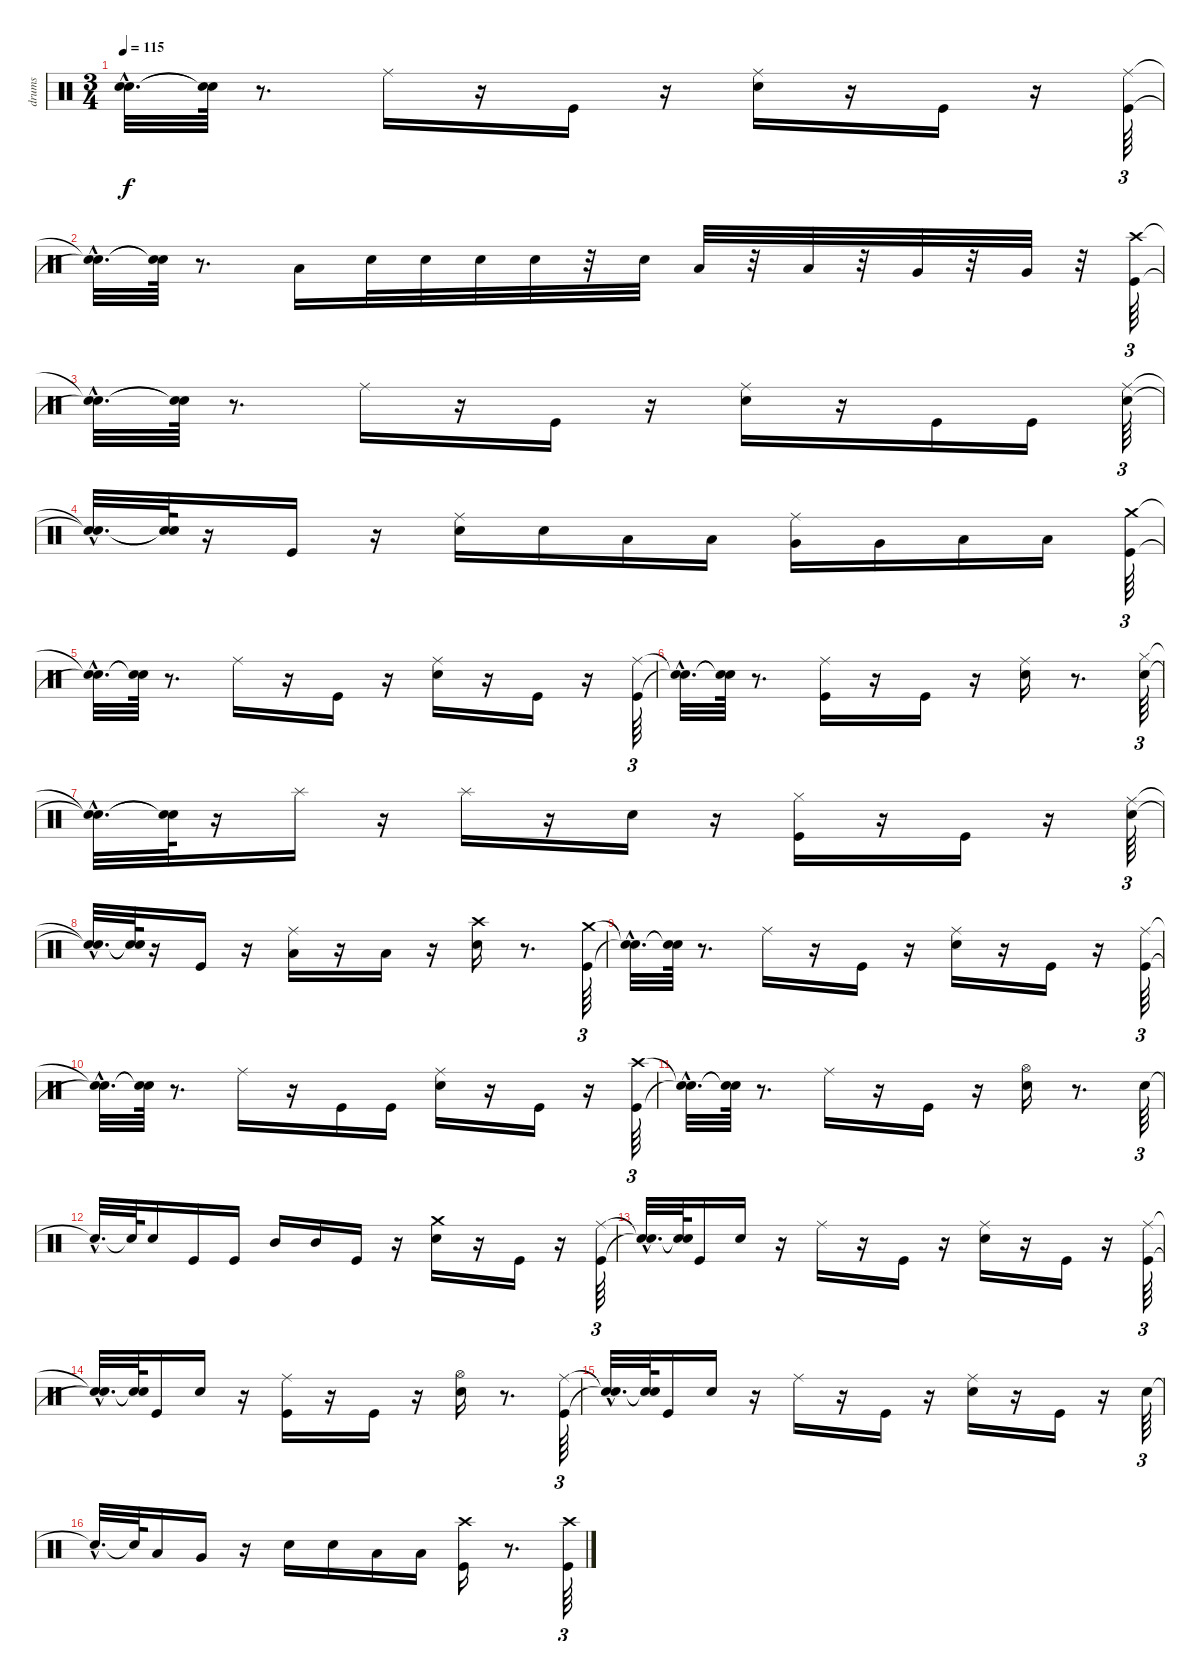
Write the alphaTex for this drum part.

\track ("drums" "drums") {instrument percussion}
\staff {score}
\articulation defaults
\ts (3 4)
\tempo 115
\clef neutral
\ks c
("Snare (hit)"{hac t} "Snare (hit)"{hac t}).32{d dy f} ("Snare (hit)"{t} "Snare (hit)"{t}).64 r.8{d} "Ride (middle)".16 r.16 "Kick (hit)".16 r.16 ("Electric Snare (hit)" "Ride (middle)").16 r.16 "Kick (hit)".16 r.16 ("Ride (middle)" "Kick (hit)").64{tu (3 2)} |
("Snare (hit)"{hac t} "Snare (hit)"{hac t}).32{d} ("Snare (hit)"{t} "Snare (hit)"{t}).64 r.8{d} "Low Tom (hit)".16 "Electric Snare (hit)".32 "Electric Snare (hit)".32 "Electric Snare (hit)".32 "Electric Snare (hit)".32 r.32 "Electric Snare (hit)".32 "Low Tom (hit)".32 r.32 "Low Tom (hit)".32 r.32 "Very Low Tom (hit)".32 r.32 "Very Low Tom (hit)".32 r.32 ("Crash high (hit)" "Kick (hit)").64{tu (3 2)} |
("Snare (hit)"{hac t} "Snare (hit)"{hac t}).32{d} ("Snare (hit)"{t} "Snare (hit)"{t}).64 r.8{d} "Ride (middle)".16 r.16 "Kick (hit)".16 r.16 ("Electric Snare (hit)" "Ride (middle)").16 r.16 "Kick (hit)".16 "Kick (hit)".16 ("Ride (middle)" "Electric Snare (hit)").64{tu (3 2)} |
("Snare (hit)"{hac t} "Snare (hit)"{hac t}).32{d} ("Snare (hit)"{t} "Snare (hit)"{t}).64 r.16 "Kick (hit)".16 r.16 ("Snare (hit) 2" "Ride (middle)").16 "Snare (hit) 2".16 "Low Tom (hit)".16 "Low Tom (hit)".16 ("Very Low Tom (hit)" "Ride (middle)").16 "Very Low Tom (hit)".16 "Low Floor Tom (hit)".16 "Low Floor Tom (hit)".16 ("Crash medium (hit)" "Kick (hit)").64{tu (3 2)} |
("Snare (hit)"{hac t} "Snare (hit)"{hac t}).32{d} ("Snare (hit)"{t} "Snare (hit)"{t}).64 r.8{d} "Ride (middle)".16 r.16 "Kick (hit)".16 r.16 ("Electric Snare (hit)" "Ride (middle)").16 r.16 "Kick (hit)".16 r.16 ("Ride (middle)" "Kick (hit)").64{tu (3 2)} |
("Snare (hit)"{hac t} "Snare (hit)"{hac t}).32{d} ("Snare (hit)"{t} "Snare (hit)"{t}).64 r.8{d} ("Kick (hit)" "Ride (middle)").16 r.16 "Kick (hit)".16 r.16 ("Electric Snare (hit)" "Ride (middle)").16 r.8{d} ("Hi-Hat (closed)" "Electric Snare (hit)").64{tu (3 2)} |
("Snare (hit)"{hac t} "Snare (hit)"{hac t}).32{d} ("Snare (hit)"{t} "Snare (hit)"{t}).64 r.16 "Splash (hit)".16 r.16 "Splash (hit)".16 r.16 "Electric Snare (hit)".16 r.16 ("Hi-Hat (closed)" "Kick (hit)").16 r.16 "Kick (hit)".16 r.16 ("Ride (middle)" "Electric Snare (hit)").64{tu (3 2)} |
("Snare (hit)"{hac t} "Snare (hit)"{hac t}).32{d} ("Snare (hit)"{t} "Snare (hit)"{t}).64 r.16 "Kick (hit)".16 r.16 ("Low Tom (hit)" "Ride (middle)").16 r.16 "Low Tom (hit)".16 r.16 ("Electric Snare (hit)" "Crash high (hit)").16 r.8{d} ("Crash medium (hit)" "Kick (hit)").64{tu (3 2)} |
("Snare (hit)"{hac t} "Snare (hit)"{hac t}).32{d} ("Snare (hit)"{t} "Snare (hit)"{t}).64 r.8{d} "Ride (middle)".16 r.16 "Kick (hit)".16 r.16 ("Ride (middle)" "Electric Snare (hit)").16 r.16 "Kick (hit)".16 r.16 ("Ride (middle)" "Kick (hit)").64{tu (3 2)} |
("Snare (hit)"{hac t} "Snare (hit)"{hac t}).32{d} ("Snare (hit)"{t} "Snare (hit)"{t}).64 r.8{d} "Ride (middle)".16 r.16 "Kick (hit)".16 "Kick (hit)".16 ("Ride (middle)" "Electric Snare (hit)").16 r.16 "Kick (hit)".16 r.16 ("Crash high (hit)" "Kick (hit)").64{tu (3 2)} |
("Snare (hit)"{hac t} "Snare (hit)"{hac t}).32{d} ("Snare (hit)"{t} "Snare (hit)"{t}).64 r.8{d} "Ride (middle)".16 r.16 "Kick (hit)".16 r.16 ("Hi-Hat (open)" "Electric Snare (hit)").16 r.8{d} "Electric Snare (hit)".64{tu (3 2)} |
"Snare (hit)"{hac t}.32{d} "Snare (hit)"{t}.64 "Electric Snare (hit)".16 "Kick (hit)".16 "Kick (hit)".16 "Mid Tom (hit)".16 "Mid Tom (hit)".16 "Kick (hit)".16 r.16 ("Crash medium (hit)" "Electric Snare (hit)").16 r.16 "Kick (hit)".16 r.16 ("Ride (middle)" "Kick (hit)").64{tu (3 2)} |
("Snare (hit)"{hac t} "Snare (hit)"{hac t}).32{d} ("Snare (hit)"{t} "Snare (hit)"{t}).64 "Kick (hit)".16 "Electric Snare (hit)".16 r.16 "Ride (middle)".16 r.16 "Kick (hit)".16 r.16 ("Electric Snare (hit)" "Ride (middle)").16 r.16 "Kick (hit)".16 r.16 ("Ride (middle)" "Kick (hit)").64{tu (3 2)} |
("Snare (hit)"{hac t} "Snare (hit)"{hac t}).32{d} ("Snare (hit)"{t} "Snare (hit)"{t}).64 "Kick (hit)".16 "Electric Snare (hit)".16 r.16 ("Ride (middle)" "Kick (hit)").16 r.16 "Kick (hit)".16 r.16 ("Hi-Hat (open)" "Electric Snare (hit)").16 r.8{d} ("Ride (middle)" "Kick (hit)").64{tu (3 2)} |
("Snare (hit)"{hac t} "Snare (hit)"{hac t}).32{d} ("Snare (hit)"{t} "Snare (hit)"{t}).64 "Kick (hit)".16 "Electric Snare (hit)".16 r.16 "Ride (middle)".16 r.16 "Kick (hit)".16 r.16 ("Electric Snare (hit)" "Ride (middle)").16 r.16 "Kick (hit)".16 r.16 "Electric Snare (hit)".64{tu (3 2)} |
"Snare (hit)"{hac t}.32{d} "Snare (hit)"{t}.64 "Low Tom (hit)".16 "Very Low Tom (hit)".16 r.16 "Electric Snare (hit)".16 "Electric Snare (hit)".16 "Low Tom (hit)".16 "Low Tom (hit)".16 ("Crash high (hit)" "Kick (hit)").16 r.8{d} ("Kick (hit)" "Crash high (hit)").64{tu (3 2)}
